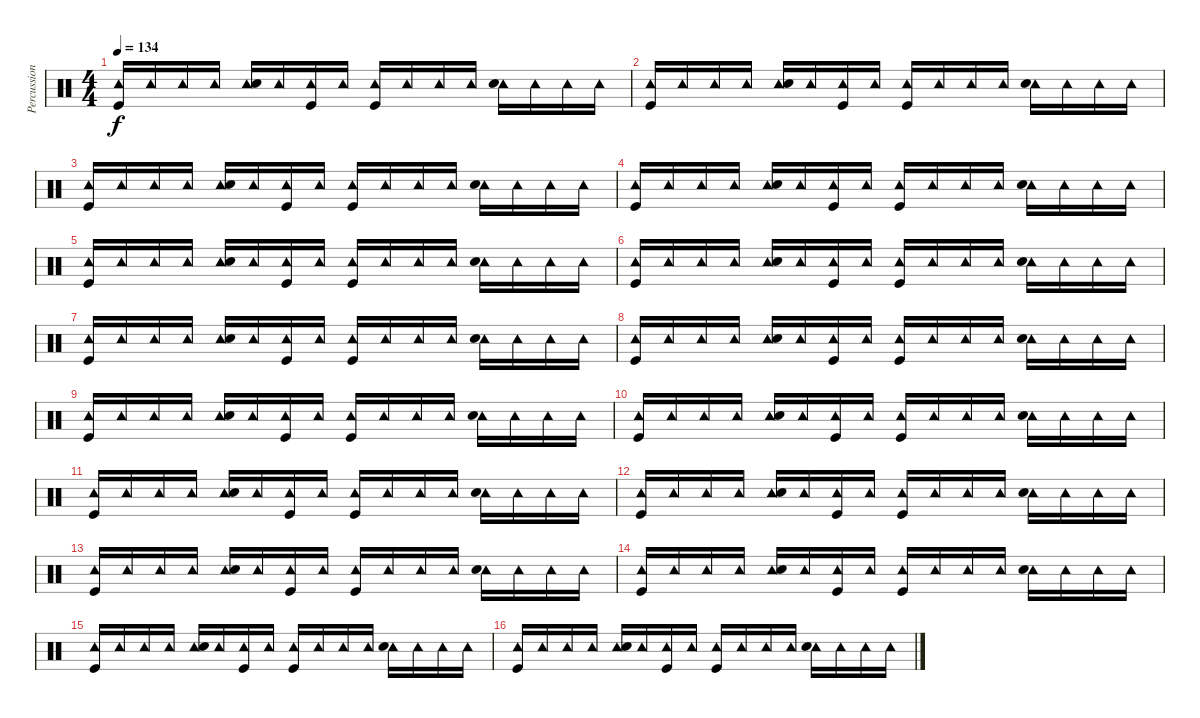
\track ("Percussion (DK 24)" "Percussion") {instrument percussion}
\staff {score}
\articulation defaults
\ts (4 4)
\tempo 134
\clef neutral
\ks c
("Tambourine (hit)" "Kick (hit)").16{dy f} "Tambourine (hit)".16 "Tambourine (hit)".16 "Tambourine (hit)".16 ("Tambourine (hit)" "Snare (hit) 2").16 "Tambourine (hit)".16 ("Tambourine (hit)" "Kick (hit)").16 "Tambourine (hit)".16 ("Tambourine (hit)" "Kick (hit)").16 "Tambourine (hit)".16 "Tambourine (hit)".16 "Tambourine (hit)".16 ("Tambourine (hit)" "Snare (hit) 2").16 "Tambourine (hit)".16 "Tambourine (hit)".16 "Tambourine (hit)".16 |
("Tambourine (hit)" "Kick (hit)").16 "Tambourine (hit)".16 "Tambourine (hit)".16 "Tambourine (hit)".16 ("Tambourine (hit)" "Snare (hit) 2").16 "Tambourine (hit)".16 ("Tambourine (hit)" "Kick (hit)").16 "Tambourine (hit)".16 ("Tambourine (hit)" "Kick (hit)").16 "Tambourine (hit)".16 "Tambourine (hit)".16 "Tambourine (hit)".16 ("Tambourine (hit)" "Snare (hit) 2").16 "Tambourine (hit)".16 "Tambourine (hit)".16 "Tambourine (hit)".16 |
("Tambourine (hit)" "Kick (hit)").16 "Tambourine (hit)".16 "Tambourine (hit)".16 "Tambourine (hit)".16 ("Tambourine (hit)" "Snare (hit) 2").16 "Tambourine (hit)".16 ("Tambourine (hit)" "Kick (hit)").16 "Tambourine (hit)".16 ("Tambourine (hit)" "Kick (hit)").16 "Tambourine (hit)".16 "Tambourine (hit)".16 "Tambourine (hit)".16 ("Tambourine (hit)" "Snare (hit) 2").16 "Tambourine (hit)".16 "Tambourine (hit)".16 "Tambourine (hit)".16 |
("Tambourine (hit)" "Kick (hit)").16 "Tambourine (hit)".16 "Tambourine (hit)".16 "Tambourine (hit)".16 ("Tambourine (hit)" "Snare (hit) 2").16 "Tambourine (hit)".16 ("Tambourine (hit)" "Kick (hit)").16 "Tambourine (hit)".16 ("Tambourine (hit)" "Kick (hit)").16 "Tambourine (hit)".16 "Tambourine (hit)".16 "Tambourine (hit)".16 ("Tambourine (hit)" "Snare (hit) 2").16 "Tambourine (hit)".16 "Tambourine (hit)".16 "Tambourine (hit)".16 |
("Tambourine (hit)" "Kick (hit)").16 "Tambourine (hit)".16 "Tambourine (hit)".16 "Tambourine (hit)".16 ("Tambourine (hit)" "Snare (hit) 2").16 "Tambourine (hit)".16 ("Tambourine (hit)" "Kick (hit)").16 "Tambourine (hit)".16 ("Tambourine (hit)" "Kick (hit)").16 "Tambourine (hit)".16 "Tambourine (hit)".16 "Tambourine (hit)".16 ("Tambourine (hit)" "Snare (hit) 2").16 "Tambourine (hit)".16 "Tambourine (hit)".16 "Tambourine (hit)".16 |
("Tambourine (hit)" "Kick (hit)").16 "Tambourine (hit)".16 "Tambourine (hit)".16 "Tambourine (hit)".16 ("Tambourine (hit)" "Snare (hit) 2").16 "Tambourine (hit)".16 ("Tambourine (hit)" "Kick (hit)").16 "Tambourine (hit)".16 ("Tambourine (hit)" "Kick (hit)").16 "Tambourine (hit)".16 "Tambourine (hit)".16 "Tambourine (hit)".16 ("Tambourine (hit)" "Snare (hit) 2").16 "Tambourine (hit)".16 "Tambourine (hit)".16 "Tambourine (hit)".16 |
("Tambourine (hit)" "Kick (hit)").16 "Tambourine (hit)".16 "Tambourine (hit)".16 "Tambourine (hit)".16 ("Tambourine (hit)" "Snare (hit) 2").16 "Tambourine (hit)".16 ("Tambourine (hit)" "Kick (hit)").16 "Tambourine (hit)".16 ("Tambourine (hit)" "Kick (hit)").16 "Tambourine (hit)".16 "Tambourine (hit)".16 "Tambourine (hit)".16 ("Tambourine (hit)" "Snare (hit) 2").16 "Tambourine (hit)".16 "Tambourine (hit)".16 "Tambourine (hit)".16 |
("Tambourine (hit)" "Kick (hit)").16 "Tambourine (hit)".16 "Tambourine (hit)".16 "Tambourine (hit)".16 ("Tambourine (hit)" "Snare (hit) 2").16 "Tambourine (hit)".16 ("Tambourine (hit)" "Kick (hit)").16 "Tambourine (hit)".16 ("Tambourine (hit)" "Kick (hit)").16 "Tambourine (hit)".16 "Tambourine (hit)".16 "Tambourine (hit)".16 ("Tambourine (hit)" "Snare (hit) 2").16 "Tambourine (hit)".16 "Tambourine (hit)".16 "Tambourine (hit)".16 |
("Tambourine (hit)" "Kick (hit)").16 "Tambourine (hit)".16 "Tambourine (hit)".16 "Tambourine (hit)".16 ("Tambourine (hit)" "Snare (hit) 2").16 "Tambourine (hit)".16 ("Tambourine (hit)" "Kick (hit)").16 "Tambourine (hit)".16 ("Tambourine (hit)" "Kick (hit)").16 "Tambourine (hit)".16 "Tambourine (hit)".16 "Tambourine (hit)".16 ("Tambourine (hit)" "Snare (hit) 2").16 "Tambourine (hit)".16 "Tambourine (hit)".16 "Tambourine (hit)".16 |
("Tambourine (hit)" "Kick (hit)").16 "Tambourine (hit)".16 "Tambourine (hit)".16 "Tambourine (hit)".16 ("Tambourine (hit)" "Snare (hit) 2").16 "Tambourine (hit)".16 ("Tambourine (hit)" "Kick (hit)").16 "Tambourine (hit)".16 ("Tambourine (hit)" "Kick (hit)").16 "Tambourine (hit)".16 "Tambourine (hit)".16 "Tambourine (hit)".16 ("Tambourine (hit)" "Snare (hit) 2").16 "Tambourine (hit)".16 "Tambourine (hit)".16 "Tambourine (hit)".16 |
("Tambourine (hit)" "Kick (hit)").16 "Tambourine (hit)".16 "Tambourine (hit)".16 "Tambourine (hit)".16 ("Tambourine (hit)" "Snare (hit) 2").16 "Tambourine (hit)".16 ("Tambourine (hit)" "Kick (hit)").16 "Tambourine (hit)".16 ("Tambourine (hit)" "Kick (hit)").16 "Tambourine (hit)".16 "Tambourine (hit)".16 "Tambourine (hit)".16 ("Tambourine (hit)" "Snare (hit) 2").16 "Tambourine (hit)".16 "Tambourine (hit)".16 "Tambourine (hit)".16 |
("Tambourine (hit)" "Kick (hit)").16 "Tambourine (hit)".16 "Tambourine (hit)".16 "Tambourine (hit)".16 ("Tambourine (hit)" "Snare (hit) 2").16 "Tambourine (hit)".16 ("Tambourine (hit)" "Kick (hit)").16 "Tambourine (hit)".16 ("Tambourine (hit)" "Kick (hit)").16 "Tambourine (hit)".16 "Tambourine (hit)".16 "Tambourine (hit)".16 ("Tambourine (hit)" "Snare (hit) 2").16 "Tambourine (hit)".16 "Tambourine (hit)".16 "Tambourine (hit)".16 |
("Tambourine (hit)" "Kick (hit)").16 "Tambourine (hit)".16 "Tambourine (hit)".16 "Tambourine (hit)".16 ("Tambourine (hit)" "Snare (hit) 2").16 "Tambourine (hit)".16 ("Tambourine (hit)" "Kick (hit)").16 "Tambourine (hit)".16 ("Tambourine (hit)" "Kick (hit)").16 "Tambourine (hit)".16 "Tambourine (hit)".16 "Tambourine (hit)".16 ("Tambourine (hit)" "Snare (hit) 2").16 "Tambourine (hit)".16 "Tambourine (hit)".16 "Tambourine (hit)".16 |
("Tambourine (hit)" "Kick (hit)").16 "Tambourine (hit)".16 "Tambourine (hit)".16 "Tambourine (hit)".16 ("Tambourine (hit)" "Snare (hit) 2").16 "Tambourine (hit)".16 ("Tambourine (hit)" "Kick (hit)").16 "Tambourine (hit)".16 ("Tambourine (hit)" "Kick (hit)").16 "Tambourine (hit)".16 "Tambourine (hit)".16 "Tambourine (hit)".16 ("Tambourine (hit)" "Snare (hit) 2").16 "Tambourine (hit)".16 "Tambourine (hit)".16 "Tambourine (hit)".16 |
("Tambourine (hit)" "Kick (hit)").16 "Tambourine (hit)".16 "Tambourine (hit)".16 "Tambourine (hit)".16 ("Tambourine (hit)" "Snare (hit) 2").16 "Tambourine (hit)".16 ("Tambourine (hit)" "Kick (hit)").16 "Tambourine (hit)".16 ("Tambourine (hit)" "Kick (hit)").16 "Tambourine (hit)".16 "Tambourine (hit)".16 "Tambourine (hit)".16 ("Tambourine (hit)" "Snare (hit) 2").16 "Tambourine (hit)".16 "Tambourine (hit)".16 "Tambourine (hit)".16 |
("Tambourine (hit)" "Kick (hit)").16 "Tambourine (hit)".16 "Tambourine (hit)".16 "Tambourine (hit)".16 ("Tambourine (hit)" "Snare (hit) 2").16 "Tambourine (hit)".16 ("Tambourine (hit)" "Kick (hit)").16 "Tambourine (hit)".16 ("Tambourine (hit)" "Kick (hit)").16 "Tambourine (hit)".16 "Tambourine (hit)".16 "Tambourine (hit)".16 ("Tambourine (hit)" "Snare (hit) 2").16 "Tambourine (hit)".16 "Tambourine (hit)".16 "Tambourine (hit)".16
